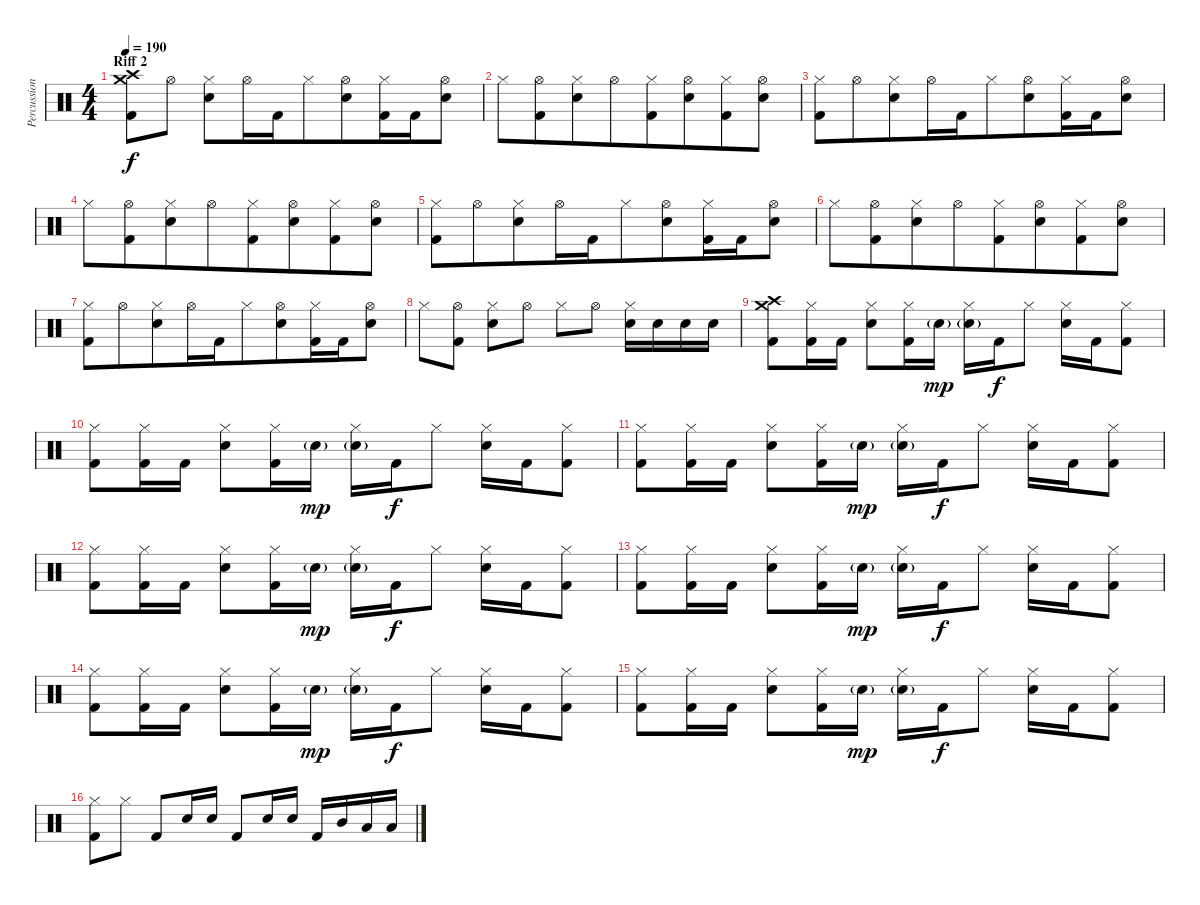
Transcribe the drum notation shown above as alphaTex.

\track ("Percussion" "Percussion") {instrument percussion}
\staff {score}
\articulation defaults
\ts (4 4)
\section ("" "Riff 2")
\tempo 190
\clef neutral
\ks c
("Crash medium (hit)" "Crash high (hit)" "Kick (hit) 2").8{dy f beam merge} "Hi-Hat (open)".8 ("Hi-Hat (closed)" "Electric Snare (hit)").8{beam merge} "Hi-Hat (open)".16{beam merge} "Kick (hit) 2".16{beam merge} "Hi-Hat (closed)".8{beam merge} ("Hi-Hat (open)" "Electric Snare (hit)").8{beam merge} ("Hi-Hat (closed)" "Kick (hit) 2").16{beam merge} "Kick (hit) 2".16{beam merge} ("Hi-Hat (open)" "Electric Snare (hit)").8 |
"Hi-Hat (closed)".8{beam merge} ("Hi-Hat (open)" "Kick (hit) 2").8{beam merge} ("Hi-Hat (closed)" "Electric Snare (hit)").8{beam merge} "Hi-Hat (open)".8{beam merge} ("Hi-Hat (closed)" "Kick (hit) 2").8{beam merge} ("Hi-Hat (open)" "Electric Snare (hit)").8{beam merge} ("Hi-Hat (closed)" "Kick (hit) 2").8{beam merge} ("Hi-Hat (open)" "Electric Snare (hit)").8 |
("Hi-Hat (closed)" "Kick (hit) 2").8{beam merge} "Hi-Hat (open)".8{beam merge} ("Hi-Hat (closed)" "Electric Snare (hit)").8{beam merge} "Hi-Hat (open)".16{beam merge} "Kick (hit) 2".16{beam merge} "Hi-Hat (closed)".8{beam merge} ("Hi-Hat (open)" "Electric Snare (hit)").8{beam merge} ("Hi-Hat (closed)" "Kick (hit) 2").16{beam merge} "Kick (hit) 2".16{beam merge} ("Hi-Hat (open)" "Electric Snare (hit)").8 |
"Hi-Hat (closed)".8{beam merge} ("Hi-Hat (open)" "Kick (hit) 2").8{beam merge} ("Hi-Hat (closed)" "Electric Snare (hit)").8{beam merge} "Hi-Hat (open)".8{beam merge} ("Hi-Hat (closed)" "Kick (hit) 2").8{beam merge} ("Hi-Hat (open)" "Electric Snare (hit)").8{beam merge} ("Hi-Hat (closed)" "Kick (hit) 2").8 ("Hi-Hat (open)" "Electric Snare (hit)").8 |
("Hi-Hat (closed)" "Kick (hit) 2").8{beam merge} "Hi-Hat (open)".8{beam merge} ("Hi-Hat (closed)" "Electric Snare (hit)").8{beam merge} "Hi-Hat (open)".16{beam merge} "Kick (hit) 2".16{beam merge} "Hi-Hat (closed)".8{beam merge} ("Hi-Hat (open)" "Electric Snare (hit)").8{beam merge} ("Hi-Hat (closed)" "Kick (hit) 2").16{beam merge} "Kick (hit) 2".16 ("Hi-Hat (open)" "Electric Snare (hit)").8 |
"Hi-Hat (closed)".8{beam merge} ("Hi-Hat (open)" "Kick (hit) 2").8{beam merge} ("Hi-Hat (closed)" "Electric Snare (hit)").8 "Hi-Hat (open)".8{beam merge} ("Hi-Hat (closed)" "Kick (hit) 2").8 ("Hi-Hat (open)" "Electric Snare (hit)").8{beam merge} ("Hi-Hat (closed)" "Kick (hit) 2").8{beam merge} ("Hi-Hat (open)" "Electric Snare (hit)").8 |
("Hi-Hat (closed)" "Kick (hit) 2").8{beam merge} "Hi-Hat (open)".8{beam merge} ("Hi-Hat (closed)" "Electric Snare (hit)").8{beam merge} "Hi-Hat (open)".16{beam merge} "Kick (hit) 2".16{beam merge} "Hi-Hat (closed)".8{beam merge} ("Hi-Hat (open)" "Electric Snare (hit)").8{beam merge} ("Hi-Hat (closed)" "Kick (hit) 2").16{beam merge} "Kick (hit) 2".16{beam merge} ("Hi-Hat (open)" "Electric Snare (hit)").8 |
"Hi-Hat (closed)".8 ("Hi-Hat (open)" "Kick (hit) 2").8 ("Hi-Hat (closed)" "Electric Snare (hit)").8 "Hi-Hat (open)".8 "Hi-Hat (closed)".8 "Hi-Hat (open)".8 ("Hi-Hat (closed)" "Electric Snare (hit)").16 "Electric Snare (hit)".16 "Electric Snare (hit)".16 "Electric Snare (hit)".16 |
("Crash medium (hit)" "Crash high (hit)" "Kick (hit) 2").8 ("Hi-Hat (closed)" "Kick (hit) 2").16 "Kick (hit) 2".16 ("Hi-Hat (closed)" "Electric Snare (hit)").8 ("Hi-Hat (closed)" "Kick (hit) 2").16 "Electric Snare (hit)"{g}.16{dy mp} ("Hi-Hat (closed)" "Electric Snare (hit)"{g}).16 "Kick (hit) 2".16{dy f} "Hi-Hat (closed)".8 ("Hi-Hat (closed)" "Electric Snare (hit)").16 "Kick (hit) 2".16 ("Hi-Hat (closed)" "Kick (hit) 2").8 |
("Hi-Hat (closed)" "Kick (hit) 2").8 ("Hi-Hat (closed)" "Kick (hit) 2").16 "Kick (hit) 2".16 ("Hi-Hat (closed)" "Electric Snare (hit)").8 ("Hi-Hat (closed)" "Kick (hit) 2").16 "Electric Snare (hit)"{g}.16{dy mp} ("Hi-Hat (closed)" "Electric Snare (hit)"{g}).16 "Kick (hit) 2".16{dy f} "Hi-Hat (closed)".8 ("Hi-Hat (closed)" "Electric Snare (hit)").16 "Kick (hit) 2".16 ("Hi-Hat (closed)" "Kick (hit) 2").8 |
("Hi-Hat (closed)" "Kick (hit) 2").8 ("Hi-Hat (closed)" "Kick (hit) 2").16 "Kick (hit) 2".16 ("Hi-Hat (closed)" "Electric Snare (hit)").8 ("Hi-Hat (closed)" "Kick (hit) 2").16 "Electric Snare (hit)"{g}.16{dy mp} ("Hi-Hat (closed)" "Electric Snare (hit)"{g}).16 "Kick (hit) 2".16{dy f} "Hi-Hat (closed)".8 ("Hi-Hat (closed)" "Electric Snare (hit)").16 "Kick (hit) 2".16 ("Hi-Hat (closed)" "Kick (hit) 2").8 |
("Hi-Hat (closed)" "Kick (hit) 2").8 ("Hi-Hat (closed)" "Kick (hit) 2").16 "Kick (hit) 2".16 ("Hi-Hat (closed)" "Electric Snare (hit)").8 ("Hi-Hat (closed)" "Kick (hit) 2").16 "Electric Snare (hit)"{g}.16{dy mp} ("Hi-Hat (closed)" "Electric Snare (hit)"{g}).16 "Kick (hit) 2".16{dy f} "Hi-Hat (closed)".8 ("Hi-Hat (closed)" "Electric Snare (hit)").16 "Kick (hit) 2".16 ("Hi-Hat (closed)" "Kick (hit) 2").8 |
("Hi-Hat (closed)" "Kick (hit) 2").8 ("Hi-Hat (closed)" "Kick (hit) 2").16 "Kick (hit) 2".16 ("Hi-Hat (closed)" "Electric Snare (hit)").8 ("Hi-Hat (closed)" "Kick (hit) 2").16 "Electric Snare (hit)"{g}.16{dy mp} ("Hi-Hat (closed)" "Electric Snare (hit)"{g}).16 "Kick (hit) 2".16{dy f} "Hi-Hat (closed)".8 ("Hi-Hat (closed)" "Electric Snare (hit)").16 "Kick (hit) 2".16 ("Hi-Hat (closed)" "Kick (hit) 2").8 |
("Hi-Hat (closed)" "Kick (hit) 2").8 ("Hi-Hat (closed)" "Kick (hit) 2").16 "Kick (hit) 2".16 ("Hi-Hat (closed)" "Electric Snare (hit)").8 ("Hi-Hat (closed)" "Kick (hit) 2").16 "Electric Snare (hit)"{g}.16{dy mp} ("Hi-Hat (closed)" "Electric Snare (hit)"{g}).16 "Kick (hit) 2".16{dy f} "Hi-Hat (closed)".8 ("Hi-Hat (closed)" "Electric Snare (hit)").16 "Kick (hit) 2".16 ("Hi-Hat (closed)" "Kick (hit) 2").8 |
("Hi-Hat (closed)" "Kick (hit) 2").8 ("Hi-Hat (closed)" "Kick (hit) 2").16 "Kick (hit) 2".16 ("Hi-Hat (closed)" "Electric Snare (hit)").8 ("Hi-Hat (closed)" "Kick (hit) 2").16 "Electric Snare (hit)"{g}.16{dy mp} ("Hi-Hat (closed)" "Electric Snare (hit)"{g}).16 "Kick (hit) 2".16{dy f} "Hi-Hat (closed)".8 ("Hi-Hat (closed)" "Electric Snare (hit)").16 "Kick (hit) 2".16 ("Hi-Hat (closed)" "Kick (hit) 2").8 |
("Hi-Hat (closed)" "Kick (hit) 2").8 "Hi-Hat (closed)".8 "Kick (hit) 2".8 "Electric Snare (hit)".16 "Electric Snare (hit)".16 "Kick (hit) 2".8 "Electric Snare (hit)".16 "Electric Snare (hit)".16 "Kick (hit) 2".16 "Mid Tom (hit)".16 "Low Tom (hit)".16 "Low Floor Tom (hit)".16
